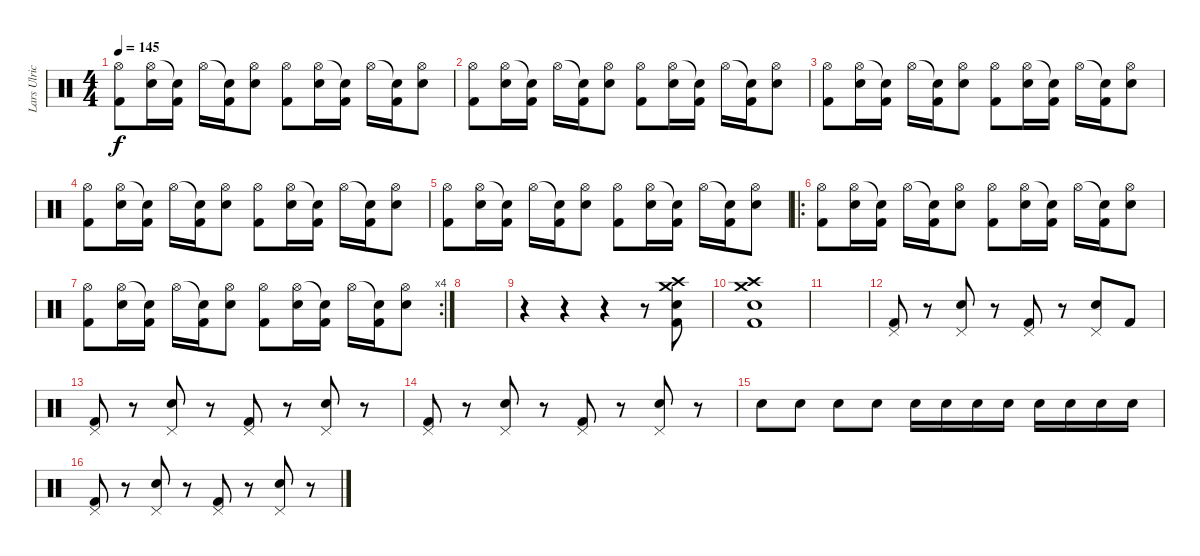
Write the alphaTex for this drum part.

\track ("Lars Ulrich" "Lars Ulric") {instrument percussion}
\staff {score}
\articulation defaults
\ts (4 4)
\tempo 145
\clef neutral
\ks c
("Hi-Hat (open)" "Kick (hit) 2").8{dy f} ("Hi-Hat (open)" "Electric Snare (hit)").16 ("Snare (hit)"{t} "Kick (hit) 2").16 "Hi-Hat (open)".16 ("Snare (hit)"{t} "Kick (hit) 2").16 ("Hi-Hat (open)" "Electric Snare (hit)").8 ("Hi-Hat (open)" "Kick (hit) 2").8 ("Hi-Hat (open)" "Electric Snare (hit)").16 ("Snare (hit)"{t} "Kick (hit) 2").16 "Hi-Hat (open)".16 ("Snare (hit)"{t} "Kick (hit) 2").16 ("Hi-Hat (open)" "Electric Snare (hit)").8 |
("Hi-Hat (open)" "Kick (hit) 2").8 ("Hi-Hat (open)" "Electric Snare (hit)").16 ("Snare (hit)"{t} "Kick (hit) 2").16 "Hi-Hat (open)".16 ("Snare (hit)"{t} "Kick (hit) 2").16 ("Hi-Hat (open)" "Electric Snare (hit)").8 ("Hi-Hat (open)" "Kick (hit) 2").8 ("Hi-Hat (open)" "Electric Snare (hit)").16 ("Snare (hit)"{t} "Kick (hit) 2").16 "Hi-Hat (open)".16 ("Snare (hit)"{t} "Kick (hit) 2").16 ("Hi-Hat (open)" "Electric Snare (hit)").8 |
("Hi-Hat (open)" "Kick (hit) 2").8 ("Hi-Hat (open)" "Electric Snare (hit)").16 ("Snare (hit)"{t} "Kick (hit) 2").16 "Hi-Hat (open)".16 ("Snare (hit)"{t} "Kick (hit) 2").16 ("Hi-Hat (open)" "Electric Snare (hit)").8 ("Hi-Hat (open)" "Kick (hit) 2").8 ("Hi-Hat (open)" "Electric Snare (hit)").16 ("Snare (hit)"{t} "Kick (hit) 2").16 "Hi-Hat (open)".16 ("Snare (hit)"{t} "Kick (hit) 2").16 ("Hi-Hat (open)" "Electric Snare (hit)").8 |
("Hi-Hat (open)" "Kick (hit) 2").8 ("Hi-Hat (open)" "Electric Snare (hit)").16 ("Snare (hit)"{t} "Kick (hit) 2").16 "Hi-Hat (open)".16 ("Snare (hit)"{t} "Kick (hit) 2").16 ("Hi-Hat (open)" "Electric Snare (hit)").8 ("Hi-Hat (open)" "Kick (hit) 2").8 ("Hi-Hat (open)" "Electric Snare (hit)").16 ("Snare (hit)"{t} "Kick (hit) 2").16 "Hi-Hat (open)".16 ("Snare (hit)"{t} "Kick (hit) 2").16 ("Hi-Hat (open)" "Electric Snare (hit)").8 |
("Hi-Hat (open)" "Kick (hit) 2").8 ("Hi-Hat (open)" "Electric Snare (hit)").16 ("Snare (hit)"{t} "Kick (hit) 2").16 "Hi-Hat (open)".16 ("Snare (hit)"{t} "Kick (hit) 2").16 ("Hi-Hat (open)" "Electric Snare (hit)").8 ("Hi-Hat (open)" "Kick (hit) 2").8 ("Hi-Hat (open)" "Electric Snare (hit)").16 ("Snare (hit)"{t} "Kick (hit) 2").16 "Hi-Hat (open)".16 ("Snare (hit)"{t} "Kick (hit) 2").16 ("Hi-Hat (open)" "Electric Snare (hit)").8 |
\ro
("Hi-Hat (open)" "Kick (hit) 2").8 ("Hi-Hat (open)" "Electric Snare (hit)").16 ("Snare (hit)"{t} "Kick (hit) 2").16 "Hi-Hat (open)".16 ("Snare (hit)"{t} "Kick (hit) 2").16 ("Hi-Hat (open)" "Electric Snare (hit)").8 ("Hi-Hat (open)" "Kick (hit) 2").8 ("Hi-Hat (open)" "Electric Snare (hit)").16 ("Snare (hit)"{t} "Kick (hit) 2").16 "Hi-Hat (open)".16 ("Snare (hit)"{t} "Kick (hit) 2").16 ("Hi-Hat (open)" "Electric Snare (hit)").8 |
\rc 4
("Hi-Hat (open)" "Kick (hit) 2").8 ("Hi-Hat (open)" "Electric Snare (hit)").16 ("Snare (hit)"{t} "Kick (hit) 2").16 "Hi-Hat (open)".16 ("Snare (hit)"{t} "Kick (hit) 2").16 ("Hi-Hat (open)" "Electric Snare (hit)").8 ("Hi-Hat (open)" "Kick (hit) 2").8 ("Hi-Hat (open)" "Electric Snare (hit)").16 ("Snare (hit)"{t} "Kick (hit) 2").16 "Hi-Hat (open)".16 ("Snare (hit)"{t} "Kick (hit) 2").16 ("Hi-Hat (open)" "Electric Snare (hit)").8 |
|
r.4 r.4 r.4 r.8 ("Crash medium (hit)" "Crash high (hit)" "Electric Snare (hit)" "Kick (hit) 2").8 |
("Crash medium (hit)" "Crash high (hit)" "Electric Snare (hit)" "Kick (hit) 2").1 |
|
("Pedal Hi-Hat (hit)" "Kick (hit) 2").8 r.8 ("Pedal Hi-Hat (hit)" "Electric Snare (hit)").8 r.8 ("Pedal Hi-Hat (hit)" "Kick (hit) 2").8 r.8 ("Pedal Hi-Hat (hit)" "Electric Snare (hit)").8 "Kick (hit) 2".8 |
("Pedal Hi-Hat (hit)" "Kick (hit) 2").8 r.8 ("Pedal Hi-Hat (hit)" "Electric Snare (hit)").8 r.8 ("Pedal Hi-Hat (hit)" "Kick (hit) 2").8 r.8 ("Pedal Hi-Hat (hit)" "Electric Snare (hit)").8 r.8 |
("Pedal Hi-Hat (hit)" "Kick (hit) 2").8 r.8 ("Pedal Hi-Hat (hit)" "Electric Snare (hit)").8 r.8 ("Pedal Hi-Hat (hit)" "Kick (hit) 2").8 r.8 ("Pedal Hi-Hat (hit)" "Electric Snare (hit)").8 r.8 |
"Electric Snare (hit)".8 "Electric Snare (hit)".8 "Electric Snare (hit)".8 "Electric Snare (hit)".8 "Electric Snare (hit)".16 "Electric Snare (hit)".16 "Electric Snare (hit)".16 "Electric Snare (hit)".16 "Electric Snare (hit)".16 "Electric Snare (hit)".16 "Electric Snare (hit)".16 "Electric Snare (hit)".16 |
("Pedal Hi-Hat (hit)" "Kick (hit) 2").8 r.8 ("Pedal Hi-Hat (hit)" "Electric Snare (hit)").8 r.8 ("Pedal Hi-Hat (hit)" "Kick (hit) 2").8 r.8 ("Pedal Hi-Hat (hit)" "Electric Snare (hit)").8 r.8
